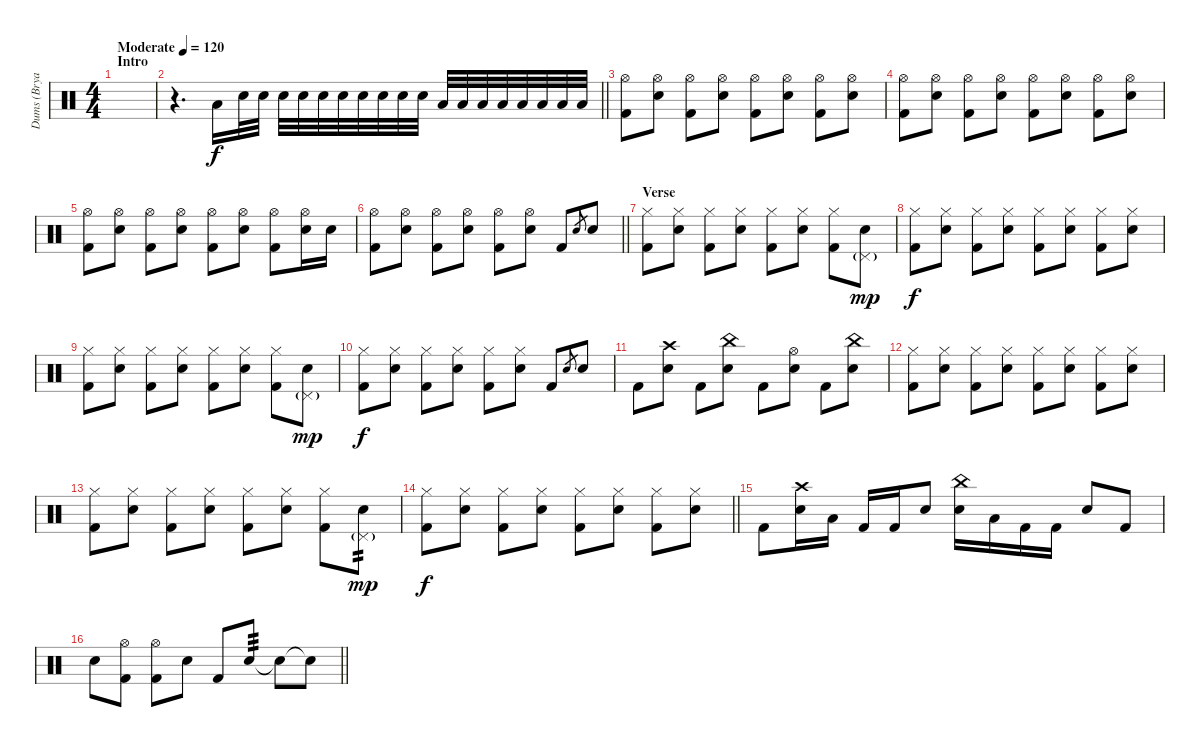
\track ("Dums (Bryar)" "Dums (Brya") {instrument percussion}
\staff {score}
\articulation defaults
\ts (4 4)
\section ("" "Intro")
\tempo (120 "Moderate")
\tempo 100
\tempo (120 "Moderate")
\clef neutral
\ks c
|
\barLineRight lightlight
r.4{d} "Low Floor Tom (hit)".16 "Electric Snare (hit)".32 "Electric Snare (hit)".32 "Electric Snare (hit)".32 "Electric Snare (hit)".32 "Electric Snare (hit)".32 "Electric Snare (hit)".32 "Electric Snare (hit)".32 "Electric Snare (hit)".32 "Electric Snare (hit)".32 "Electric Snare (hit)".32 "Low Tom (hit)".32 "Low Tom (hit)".32 "Low Tom (hit)".32 "Low Tom (hit)".32 "Low Tom (hit)".32 "Low Tom (hit)".32 "Low Tom (hit)".32 "Low Tom (hit)".32 |
("Hi-Hat (open)" "Kick (hit) 2").8 ("Hi-Hat (open)" "Electric Snare (hit)").8 ("Hi-Hat (open)" "Kick (hit) 2").8 ("Hi-Hat (open)" "Electric Snare (hit)").8 ("Hi-Hat (open)" "Kick (hit) 2").8 ("Hi-Hat (open)" "Electric Snare (hit)").8 ("Hi-Hat (open)" "Kick (hit) 2").8 ("Hi-Hat (open)" "Electric Snare (hit)").8 |
("Hi-Hat (open)" "Kick (hit) 2").8 ("Hi-Hat (open)" "Electric Snare (hit)").8 ("Hi-Hat (open)" "Kick (hit) 2").8 ("Hi-Hat (open)" "Electric Snare (hit)").8 ("Hi-Hat (open)" "Kick (hit) 2").8 ("Hi-Hat (open)" "Electric Snare (hit)").8 ("Hi-Hat (open)" "Kick (hit) 2").8 ("Hi-Hat (open)" "Electric Snare (hit)").8 |
("Hi-Hat (open)" "Kick (hit) 2").8 ("Hi-Hat (open)" "Electric Snare (hit)").8 ("Hi-Hat (open)" "Kick (hit) 2").8 ("Hi-Hat (open)" "Electric Snare (hit)").8 ("Hi-Hat (open)" "Kick (hit) 2").8 ("Hi-Hat (open)" "Electric Snare (hit)").8 ("Hi-Hat (open)" "Kick (hit) 2").8 ("Hi-Hat (open)" "Electric Snare (hit)").16 "Electric Snare (hit)".16 |
\barLineRight lightlight
("Hi-Hat (open)" "Kick (hit) 2").8 ("Hi-Hat (open)" "Electric Snare (hit)").8 ("Hi-Hat (open)" "Kick (hit) 2").8 ("Hi-Hat (open)" "Electric Snare (hit)").8 ("Hi-Hat (open)" "Kick (hit) 2").8 ("Hi-Hat (open)" "Electric Snare (hit)").8 "Kick (hit) 2".8 "Electric Snare (hit)".8{gr} "Electric Snare (hit)".8 |
\section ("" "Verse")
("Hi-Hat (closed)" "Kick (hit) 2").8 ("Hi-Hat (closed)" "Electric Snare (hit)").8 ("Hi-Hat (closed)" "Kick (hit) 2").8 ("Hi-Hat (closed)" "Electric Snare (hit)").8 ("Hi-Hat (closed)" "Kick (hit) 2").8 ("Hi-Hat (closed)" "Electric Snare (hit)").8 ("Hi-Hat (closed)" "Kick (hit) 2").8 ("Pedal Hi-Hat (hit)"{g} "Electric Snare (hit)").8{dy mp} |
("Hi-Hat (closed)" "Kick (hit) 2").8{dy f} ("Hi-Hat (closed)" "Electric Snare (hit)").8 ("Hi-Hat (closed)" "Kick (hit) 2").8 ("Hi-Hat (closed)" "Electric Snare (hit)").8 ("Hi-Hat (closed)" "Kick (hit) 2").8 ("Hi-Hat (closed)" "Electric Snare (hit)").8 ("Hi-Hat (closed)" "Kick (hit) 2").8 ("Hi-Hat (closed)" "Electric Snare (hit)").8 |
("Hi-Hat (closed)" "Kick (hit) 2").8 ("Hi-Hat (closed)" "Electric Snare (hit)").8 ("Hi-Hat (closed)" "Kick (hit) 2").8 ("Hi-Hat (closed)" "Electric Snare (hit)").8 ("Hi-Hat (closed)" "Kick (hit) 2").8 ("Hi-Hat (closed)" "Electric Snare (hit)").8 ("Hi-Hat (closed)" "Kick (hit) 2").8 ("Pedal Hi-Hat (hit)"{g} "Electric Snare (hit)").8{dy mp} |
("Hi-Hat (closed)" "Kick (hit) 2").8{dy f} ("Hi-Hat (closed)" "Electric Snare (hit)").8 ("Hi-Hat (closed)" "Kick (hit) 2").8 ("Hi-Hat (closed)" "Electric Snare (hit)").8 ("Hi-Hat (closed)" "Kick (hit) 2").8 ("Hi-Hat (closed)" "Electric Snare (hit)").8 "Kick (hit) 2".8 "Electric Snare (hit)".8{gr} "Electric Snare (hit)".8 |
"Kick (hit) 2".8 ("Crash high (hit)" "Electric Snare (hit)").8 "Kick (hit) 2".8 ("China (hit)" "Electric Snare (hit)").8 "Kick (hit) 2".8 ("Hi-Hat (open)" "Electric Snare (hit)").8 "Kick (hit) 2".8 ("China (hit)" "Electric Snare (hit)").8 |
("Hi-Hat (closed)" "Kick (hit) 2").8 ("Hi-Hat (closed)" "Electric Snare (hit)").8 ("Hi-Hat (closed)" "Kick (hit) 2").8 ("Hi-Hat (closed)" "Electric Snare (hit)").8 ("Hi-Hat (closed)" "Kick (hit) 2").8 ("Hi-Hat (closed)" "Electric Snare (hit)").8 ("Hi-Hat (closed)" "Kick (hit) 2").8 ("Hi-Hat (closed)" "Electric Snare (hit)").8 |
("Hi-Hat (closed)" "Kick (hit) 2").8 ("Hi-Hat (closed)" "Electric Snare (hit)").8 ("Hi-Hat (closed)" "Kick (hit) 2").8 ("Hi-Hat (closed)" "Electric Snare (hit)").8 ("Hi-Hat (closed)" "Kick (hit) 2").8 ("Hi-Hat (closed)" "Electric Snare (hit)").8 ("Hi-Hat (closed)" "Kick (hit) 2").8 ("Pedal Hi-Hat (hit)"{g} "Electric Snare (hit)").8{tp 2 dy mp} |
\barLineRight lightlight
("Hi-Hat (closed)" "Kick (hit) 2").8{dy f} ("Hi-Hat (closed)" "Electric Snare (hit)").8 ("Hi-Hat (closed)" "Kick (hit) 2").8 ("Hi-Hat (closed)" "Electric Snare (hit)").8 ("Hi-Hat (closed)" "Kick (hit) 2").8 ("Hi-Hat (closed)" "Electric Snare (hit)").8 ("Hi-Hat (closed)" "Kick (hit) 2").8 ("Hi-Hat (closed)" "Electric Snare (hit)").8 |
\section ("" "")
"Kick (hit) 2".8 ("Crash high (hit)" "Electric Snare (hit)").16 "Low Tom (hit)".16 "Kick (hit) 2".16 "Kick (hit) 2".16 "Electric Snare (hit)".8 ("China (hit)" "Electric Snare (hit)").16 "Low Tom (hit)".16 "Kick (hit) 2".16 "Kick (hit) 2".16 "Electric Snare (hit)".8 "Kick (hit) 2".8 |
\barLineRight lightlight "Electric Snare (hit)".8
("Hi-Hat (open)" "Kick (hit) 2").8 ("Hi-Hat (open)" "Kick (hit) 2").8 "Electric Snare (hit)".8 "Kick (hit) 2".8 "Electric Snare (hit)".8{tp 3} "Snare (hit)"{t}.8 "Snare (hit)"{t}.8
